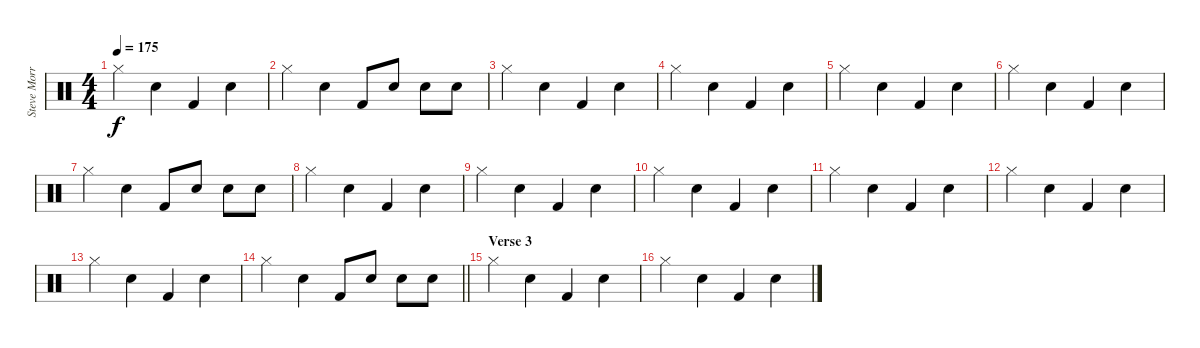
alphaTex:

\track ("Steve Morris" "Steve Morr") {instrument percussion}
\staff {score}
\articulation defaults
\ts (4 4)
\tempo 175
\clef neutral
\ks c "Hi-Hat (closed)".4{dy f} "Snare (hit) 2".4 "Kick (hit) 2".4 "Snare (hit) 2".4
|
"Hi-Hat (closed)".4 "Snare (hit) 2".4 "Kick (hit) 2".8 "Snare (hit) 2".8 "Snare (hit) 2".8 "Snare (hit) 2".8 |
"Hi-Hat (closed)".4 "Snare (hit) 2".4 "Kick (hit) 2".4 "Snare (hit) 2".4 |
"Hi-Hat (closed)".4 "Snare (hit) 2".4 "Kick (hit) 2".4 "Snare (hit) 2".4 |
"Hi-Hat (closed)".4 "Snare (hit) 2".4 "Kick (hit) 2".4 "Snare (hit) 2".4 |
"Hi-Hat (closed)".4 "Snare (hit) 2".4 "Kick (hit) 2".4 "Snare (hit) 2".4 |
"Hi-Hat (closed)".4 "Snare (hit) 2".4 "Kick (hit) 2".8 "Snare (hit) 2".8 "Snare (hit) 2".8 "Snare (hit) 2".8 |
"Hi-Hat (closed)".4 "Snare (hit) 2".4 "Kick (hit) 2".4 "Snare (hit) 2".4 |
"Hi-Hat (closed)".4 "Snare (hit) 2".4 "Kick (hit) 2".4 "Snare (hit) 2".4 |
"Hi-Hat (closed)".4 "Snare (hit) 2".4 "Kick (hit) 2".4 "Snare (hit) 2".4 |
"Hi-Hat (closed)".4 "Snare (hit) 2".4 "Kick (hit) 2".4 "Snare (hit) 2".4 |
"Hi-Hat (closed)".4 "Snare (hit) 2".4 "Kick (hit) 2".4 "Snare (hit) 2".4 |
"Hi-Hat (closed)".4 "Snare (hit) 2".4 "Kick (hit) 2".4 "Snare (hit) 2".4 |
\barLineRight lightlight "Hi-Hat (closed)".4 "Snare (hit) 2".4 "Kick (hit) 2".8 "Snare (hit) 2".8 "Snare (hit) 2".8 "Snare (hit) 2".8
|
\section ("" "Verse 3")
"Hi-Hat (closed)".4 "Snare (hit) 2".4 "Kick (hit) 2".4 "Snare (hit) 2".4 |
"Hi-Hat (closed)".4 "Snare (hit) 2".4 "Kick (hit) 2".4 "Snare (hit) 2".4
